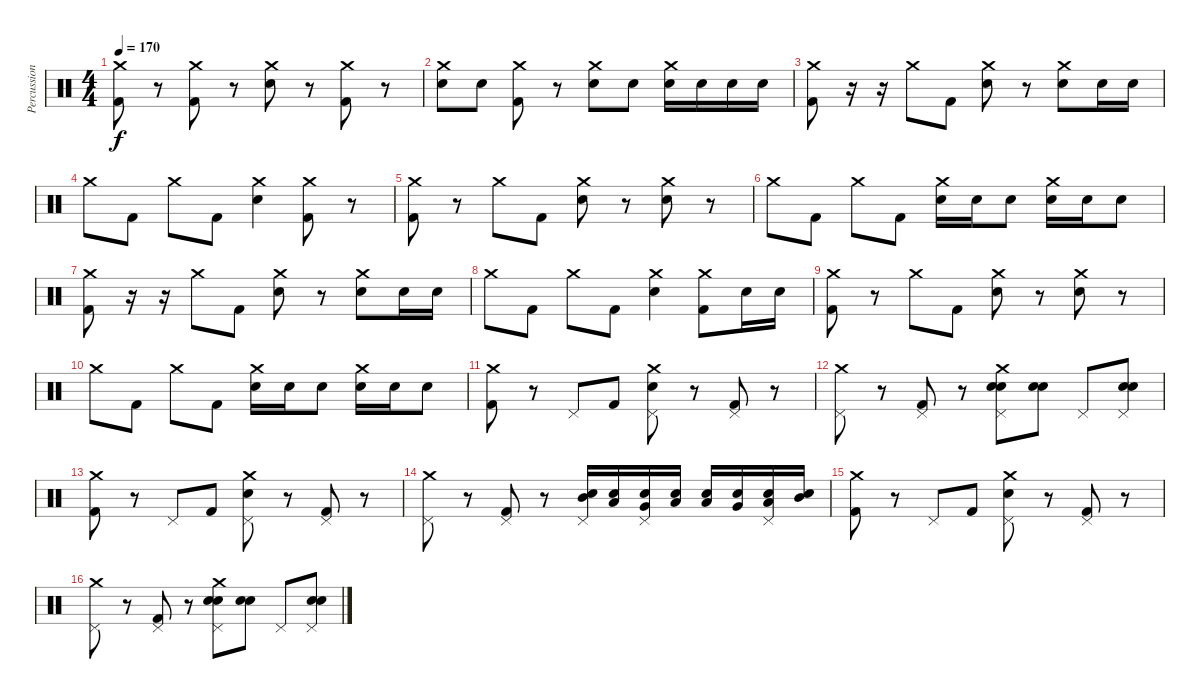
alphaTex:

\track ("Percussion" "Percussion") {instrument percussion}
\staff {score}
\articulation defaults
\ts (4 4)
\tempo 170
\clef neutral
\ks c
("Crash medium (hit)" "Kick (hit) 2").8{dy f} r.8 ("Crash medium (hit)" "Kick (hit) 2").8 r.8 ("Crash medium (hit)" "Electric Snare (hit)").8 r.8 ("Crash medium (hit)" "Kick (hit) 2").8 r.8 |
("Crash medium (hit)" "Electric Snare (hit)").8 "Electric Snare (hit)".8 ("Crash medium (hit)" "Kick (hit) 2").8 r.8 ("Crash medium (hit)" "Electric Snare (hit)").8 "Electric Snare (hit)".8 ("Crash medium (hit)" "Electric Snare (hit)").16 "Electric Snare (hit)".16 "Electric Snare (hit)".16 "Electric Snare (hit)".16 |
("Crash medium (hit)" "Kick (hit) 2").8 r.16 r.16 "Crash medium (hit)".8 "Kick (hit) 2".8 ("Crash medium (hit)" "Electric Snare (hit)").8 r.8 ("Crash medium (hit)" "Electric Snare (hit)").8 "Electric Snare (hit)".16 "Electric Snare (hit)".16 |
"Crash medium (hit)".8 "Kick (hit) 2".8 "Crash medium (hit)".8 "Kick (hit) 2".8 ("Crash medium (hit)" "Electric Snare (hit)").4 ("Crash medium (hit)" "Kick (hit) 2").8 r.8 |
("Crash medium (hit)" "Kick (hit) 2").8 r.8 "Crash medium (hit)".8 "Kick (hit) 2".8 ("Crash medium (hit)" "Electric Snare (hit)").8 r.8 ("Crash medium (hit)" "Electric Snare (hit)").8 r.8 |
"Crash medium (hit)".8 "Kick (hit) 2".8 "Crash medium (hit)".8 "Kick (hit) 2".8 ("Crash medium (hit)" "Electric Snare (hit)").16 "Electric Snare (hit)".16 "Electric Snare (hit)".8 ("Crash medium (hit)" "Electric Snare (hit)").16 "Electric Snare (hit)".16 "Electric Snare (hit)".8 |
("Crash medium (hit)" "Kick (hit) 2").8 r.16 r.16 "Crash medium (hit)".8 "Kick (hit) 2".8 ("Crash medium (hit)" "Electric Snare (hit)").8 r.8 ("Crash medium (hit)" "Electric Snare (hit)").8 "Electric Snare (hit)".16 "Electric Snare (hit)".16 |
"Crash medium (hit)".8 "Kick (hit) 2".8 "Crash medium (hit)".8 "Kick (hit) 2".8 ("Crash medium (hit)" "Electric Snare (hit)").4 ("Crash medium (hit)" "Kick (hit) 2").8 "Electric Snare (hit)".16 "Electric Snare (hit)".16 |
("Crash medium (hit)" "Kick (hit) 2").8 r.8 "Crash medium (hit)".8 "Kick (hit) 2".8 ("Crash medium (hit)" "Electric Snare (hit)").8 r.8 ("Crash medium (hit)" "Electric Snare (hit)").8 r.8 |
"Crash medium (hit)".8 "Kick (hit) 2".8 "Crash medium (hit)".8 "Kick (hit) 2".8 ("Crash medium (hit)" "Electric Snare (hit)").16 "Electric Snare (hit)".16 "Electric Snare (hit)".8 ("Crash medium (hit)" "Electric Snare (hit)").16 "Electric Snare (hit)".16 "Electric Snare (hit)".8 |
("Crash medium (hit)" "Kick (hit) 2").8 r.8 "Pedal Hi-Hat (hit)".8 "Kick (hit) 2".8 ("Crash medium (hit)" "Pedal Hi-Hat (hit)" "Electric Snare (hit)").8 r.8 ("Pedal Hi-Hat (hit)" "Kick (hit) 2").8 r.8 |
("Crash medium (hit)" "Pedal Hi-Hat (hit)").8 r.8 ("Pedal Hi-Hat (hit)" "Kick (hit) 2").8 r.8 ("Crash medium (hit)" "Pedal Hi-Hat (hit)" "Electric Snare (hit)" "Electric Snare (hit)").8 ("Electric Snare (hit)" "Electric Snare (hit)").8 "Pedal Hi-Hat (hit)".8 ("Pedal Hi-Hat (hit)" "Electric Snare (hit)" "Electric Snare (hit)").8 |
("Crash medium (hit)" "Kick (hit) 2").8 r.8 "Pedal Hi-Hat (hit)".8 "Kick (hit) 2".8 ("Crash medium (hit)" "Pedal Hi-Hat (hit)" "Electric Snare (hit)").8 r.8 ("Pedal Hi-Hat (hit)" "Kick (hit) 2").8 r.8 |
("Pedal Hi-Hat (hit)" "Crash medium (hit)").8 r.8 ("Pedal Hi-Hat (hit)" "Kick (hit) 2").8 r.8 ("Pedal Hi-Hat (hit)" "Mid Tom (hit)" "Electric Snare (hit)").16 ("Low Tom (hit)" "Electric Snare (hit)").16 ("Pedal Hi-Hat (hit)" "Very Low Tom (hit)" "Electric Snare (hit)").16 ("Low Floor Tom (hit)" "Electric Snare (hit)").16 ("Low Floor Tom (hit)" "Electric Snare (hit)").16 ("Very Low Tom (hit)" "Electric Snare (hit)").16 ("Pedal Hi-Hat (hit)" "Low Tom (hit)" "Electric Snare (hit)").16 ("Mid Tom (hit)" "Electric Snare (hit)").16 |
("Crash medium (hit)" "Kick (hit) 2").8 r.8 "Pedal Hi-Hat (hit)".8 "Kick (hit) 2".8 ("Crash medium (hit)" "Pedal Hi-Hat (hit)" "Electric Snare (hit)").8 r.8 ("Pedal Hi-Hat (hit)" "Kick (hit) 2").8 r.8 |
("Crash medium (hit)" "Pedal Hi-Hat (hit)").8 r.8 ("Pedal Hi-Hat (hit)" "Kick (hit) 2").8 r.8 ("Crash medium (hit)" "Pedal Hi-Hat (hit)" "Electric Snare (hit)" "Electric Snare (hit)").8 ("Electric Snare (hit)" "Electric Snare (hit)").8 "Pedal Hi-Hat (hit)".8 ("Pedal Hi-Hat (hit)" "Electric Snare (hit)" "Electric Snare (hit)").8
